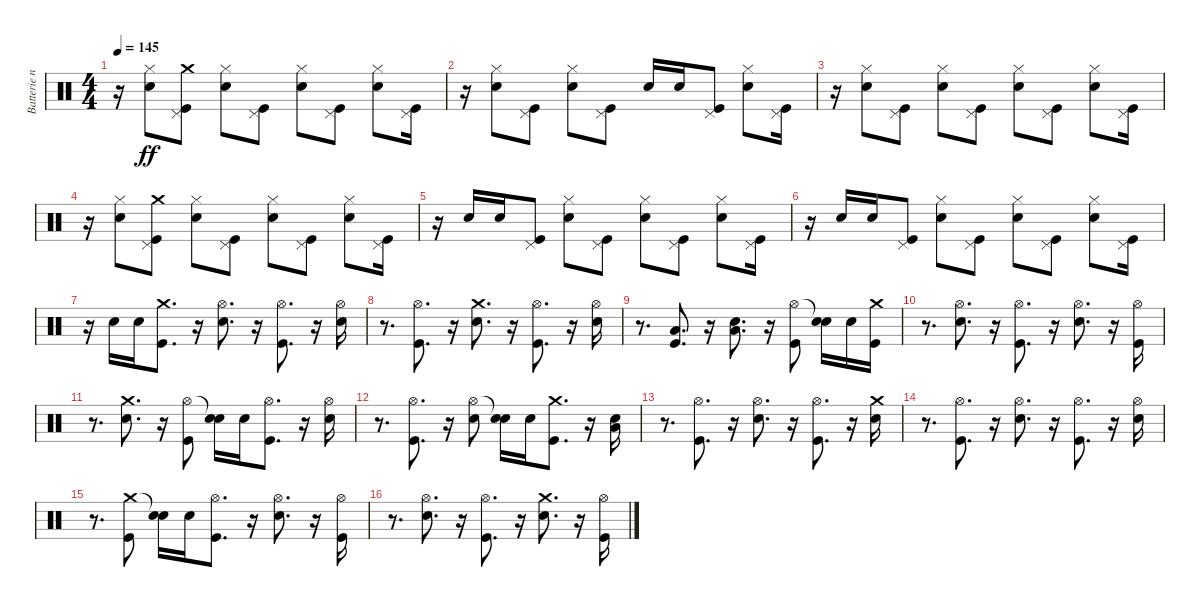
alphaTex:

\track ("Batterie n°3" "Batterie n") {instrument percussion}
\staff {score}
\articulation defaults
\ts (4 4)
\tempo 145
\clef neutral
\ks c
r.16{dy ff} ("Snare (hit) 2" "Hi-Hat (closed)").8 ("Kick (hit)" "Pedal Hi-Hat (hit)" "Crash medium (hit)").8 ("Snare (hit) 2" "Hi-Hat (closed)").8 ("Kick (hit)" "Pedal Hi-Hat (hit)").8 ("Snare (hit) 2" "Hi-Hat (closed)").8 ("Kick (hit)" "Pedal Hi-Hat (hit)").8 ("Snare (hit) 2" "Hi-Hat (closed)").8 ("Kick (hit)" "Pedal Hi-Hat (hit)").16 |
r.16 ("Snare (hit) 2" "Hi-Hat (closed)").8 ("Kick (hit)" "Pedal Hi-Hat (hit)").8 ("Snare (hit) 2" "Hi-Hat (closed)").8 ("Kick (hit)" "Pedal Hi-Hat (hit)").8 "Snare (hit) 2".16 "Snare (hit) 2".16 ("Kick (hit)" "Pedal Hi-Hat (hit)").8 ("Snare (hit) 2" "Hi-Hat (closed)").8 ("Kick (hit)" "Pedal Hi-Hat (hit)").16 |
r.16 ("Snare (hit) 2" "Hi-Hat (closed)").8 ("Kick (hit)" "Pedal Hi-Hat (hit)").8 ("Snare (hit) 2" "Hi-Hat (closed)").8 ("Kick (hit)" "Pedal Hi-Hat (hit)").8 ("Snare (hit) 2" "Hi-Hat (closed)").8 ("Kick (hit)" "Pedal Hi-Hat (hit)").8 ("Snare (hit) 2" "Hi-Hat (closed)").8 ("Kick (hit)" "Pedal Hi-Hat (hit)").16 |
r.16 ("Snare (hit) 2" "Hi-Hat (closed)").8 ("Kick (hit)" "Pedal Hi-Hat (hit)" "Crash medium (hit)").8 ("Snare (hit) 2" "Hi-Hat (closed)").8 ("Kick (hit)" "Pedal Hi-Hat (hit)").8 ("Snare (hit) 2" "Hi-Hat (closed)").8 ("Kick (hit)" "Pedal Hi-Hat (hit)").8 ("Snare (hit) 2" "Hi-Hat (closed)").8 ("Kick (hit)" "Pedal Hi-Hat (hit)").16 |
r.16 "Snare (hit) 2".16 "Snare (hit) 2".16 ("Kick (hit)" "Pedal Hi-Hat (hit)").8 ("Snare (hit) 2" "Hi-Hat (closed)").8 ("Kick (hit)" "Pedal Hi-Hat (hit)").8 ("Snare (hit) 2" "Hi-Hat (closed)").8 ("Kick (hit)" "Pedal Hi-Hat (hit)").8 ("Electric Snare (hit)" "Hi-Hat (closed)").8 ("Kick (hit)" "Pedal Hi-Hat (hit)").16 |
r.16 "Snare (hit) 2".16 "Snare (hit) 2".16 ("Kick (hit)" "Pedal Hi-Hat (hit)").8 ("Snare (hit) 2" "Hi-Hat (closed)").8 ("Kick (hit)" "Pedal Hi-Hat (hit)").8 ("Snare (hit) 2" "Hi-Hat (closed)").8 ("Kick (hit)" "Pedal Hi-Hat (hit)").8 ("Snare (hit) 2" "Hi-Hat (closed)").8 ("Kick (hit)" "Pedal Hi-Hat (hit)").16 |
r.16 "Snare (hit) 2".16 "Snare (hit) 2".16 ("Kick (hit)" "Crash medium (hit)").8{d} r.16 ("Snare (hit) 2" "Hi-Hat (open)").8{d} r.16 ("Kick (hit)" "Hi-Hat (open)").8{d} r.16 ("Snare (hit) 2" "Hi-Hat (open)").16 |
r.8{d} ("Kick (hit)" "Hi-Hat (open)").8{d} r.16 ("Snare (hit) 2" "Crash medium (hit)").8{d} r.16 ("Kick (hit)" "Hi-Hat (open)").8{d} r.16 ("Snare (hit) 2" "Hi-Hat (open)").16 |
r.8{d} ("Kick (hit)" "Low Tom (hit)").8{d} r.16 ("Snare (hit) 2" "Low Tom (hit)").8{d} r.16 ("Kick (hit)" "Hi-Hat (open)").8 ("Snare (hit) 2" "Snare (hit)"{t}).16 "Snare (hit) 2".16 ("Kick (hit)" "Crash medium (hit)").16 |
r.8{d} ("Snare (hit) 2" "Hi-Hat (open)").8{d} r.16 ("Kick (hit)" "Hi-Hat (open)").8{d} r.16 ("Snare (hit) 2" "Hi-Hat (open)").8{d} r.16 ("Kick (hit)" "Hi-Hat (open)").16 |
r.8{d} ("Snare (hit) 2" "Crash medium (hit)").8{d} r.16 ("Kick (hit)" "Hi-Hat (open)").8 ("Snare (hit) 2" "Snare (hit)"{t}).16 "Snare (hit) 2".16 ("Kick (hit)" "Hi-Hat (open)").8{d} r.16 ("Snare (hit) 2" "Hi-Hat (open)").16 |
r.8{d} ("Kick (hit)" "Hi-Hat (open)").8{d} r.16 ("Snare (hit) 2" "Hi-Hat (open)").8 ("Snare (hit) 2" "Snare (hit)"{t}).16 "Snare (hit) 2".16 ("Kick (hit)" "Crash medium (hit)").8{d} r.16 ("Snare (hit) 2" "Low Tom (hit)").16 |
r.8{d} ("Kick (hit)" "Hi-Hat (open)").8{d volume 15} r.16 ("Snare (hit) 2" "Hi-Hat (open)").8{d} r.16 ("Kick (hit)" "Hi-Hat (open)").8{d} r.16 ("Snare (hit) 2" "Crash medium (hit)").16 |
r.8{d} ("Kick (hit)" "Hi-Hat (open)").8{d} r.16 ("Snare (hit) 2" "Hi-Hat (open)").8{d} r.16 ("Kick (hit)" "Hi-Hat (open)").8{d} r.16 ("Snare (hit) 2" "Hi-Hat (open)").16 |
r.8{d} ("Kick (hit)" "Crash medium (hit)").8 ("Snare (hit) 2" "Snare (hit)"{t}).16 "Snare (hit) 2".16 ("Kick (hit)" "Hi-Hat (open)").8{d} r.16 ("Snare (hit) 2" "Hi-Hat (open)").8{d} r.16 ("Kick (hit)" "Hi-Hat (open)").16 |
r.8{d} ("Snare (hit) 2" "Hi-Hat (open)").8{d} r.16 ("Kick (hit)" "Hi-Hat (open)").8{d} r.16 ("Snare (hit) 2" "Crash medium (hit)").8{d} r.16 ("Kick (hit)" "Hi-Hat (open)").16
